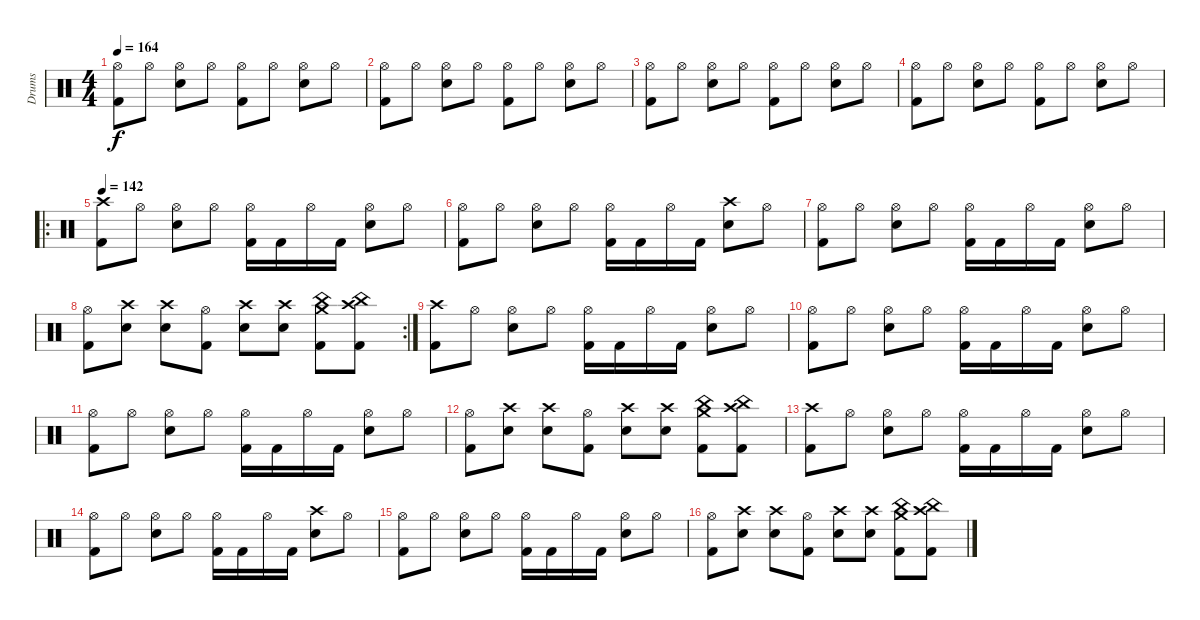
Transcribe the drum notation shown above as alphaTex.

\track ("Drums" "Drums") {instrument percussion}
\staff {score}
\articulation defaults
\ts (4 4)
\tempo 164
\clef neutral
\ks c
("Hi-Hat (open)" "Kick (hit) 2").8{dy f} "Hi-Hat (open)".8 ("Hi-Hat (open)" "Snare (hit) 2").8 "Hi-Hat (open)".8 ("Hi-Hat (open)" "Kick (hit) 2").8 "Hi-Hat (open)".8 ("Hi-Hat (open)" "Snare (hit) 2").8 "Hi-Hat (open)".8 |
("Hi-Hat (open)" "Kick (hit) 2").8 "Hi-Hat (open)".8 ("Hi-Hat (open)" "Snare (hit) 2").8 "Hi-Hat (open)".8 ("Hi-Hat (open)" "Kick (hit) 2").8 "Hi-Hat (open)".8 ("Hi-Hat (open)" "Snare (hit) 2").8 "Hi-Hat (open)".8 |
("Hi-Hat (open)" "Kick (hit) 2").8 "Hi-Hat (open)".8 ("Hi-Hat (open)" "Snare (hit) 2").8 "Hi-Hat (open)".8 ("Hi-Hat (open)" "Kick (hit) 2").8 "Hi-Hat (open)".8 ("Hi-Hat (open)" "Snare (hit) 2").8 "Hi-Hat (open)".8 |
("Hi-Hat (open)" "Kick (hit) 2").8 "Hi-Hat (open)".8 ("Hi-Hat (open)" "Snare (hit) 2").8 "Hi-Hat (open)".8 ("Hi-Hat (open)" "Kick (hit) 2").8 "Hi-Hat (open)".8 ("Hi-Hat (open)" "Snare (hit) 2").8 "Hi-Hat (open)".8 |
\ro
\tempo 142
("Crash high (hit)" "Kick (hit) 2").8 "Hi-Hat (open)".8 ("Hi-Hat (open)" "Snare (hit) 2").8 "Hi-Hat (open)".8 ("Hi-Hat (open)" "Kick (hit) 2").16 "Kick (hit) 2".16 "Hi-Hat (open)".16 "Kick (hit) 2".16 ("Hi-Hat (open)" "Snare (hit) 2").8 "Hi-Hat (open)".8 |
("Hi-Hat (open)" "Kick (hit) 2").8 "Hi-Hat (open)".8 ("Hi-Hat (open)" "Snare (hit) 2").8 "Hi-Hat (open)".8 ("Hi-Hat (open)" "Kick (hit) 2").16 "Kick (hit) 2".16 "Hi-Hat (open)".16 "Kick (hit) 2".16 ("Crash high (hit)" "Snare (hit) 2").8 "Hi-Hat (open)".8 |
("Hi-Hat (open)" "Kick (hit) 2").8 "Hi-Hat (open)".8 ("Hi-Hat (open)" "Snare (hit) 2").8 "Hi-Hat (open)".8 ("Hi-Hat (open)" "Kick (hit) 2").16 "Kick (hit) 2".16 "Hi-Hat (open)".16 "Kick (hit) 2".16 ("Hi-Hat (open)" "Snare (hit) 2").8 "Hi-Hat (open)".8 |
\rc 2
("Hi-Hat (open)" "Kick (hit) 2").8 ("Crash high (hit)" "Snare (hit) 2").8 ("Crash high (hit)" "Snare (hit) 2").8 ("Hi-Hat (open)" "Kick (hit) 2").8 ("Crash high (hit)" "Snare (hit) 2").8 ("Crash high (hit)" "Snare (hit) 2").8 ("China (hit)" "Crash medium (hit)" "Kick (hit) 2").8 ("China (hit)" "Crash high (hit)" "Kick (hit) 2").8 |
("Crash high (hit)" "Kick (hit) 2").8 "Hi-Hat (open)".8 ("Hi-Hat (open)" "Snare (hit) 2").8 "Hi-Hat (open)".8 ("Hi-Hat (open)" "Kick (hit) 2").16 "Kick (hit) 2".16 "Hi-Hat (open)".16 "Kick (hit) 2".16 ("Hi-Hat (open)" "Snare (hit) 2").8 "Hi-Hat (open)".8 |
("Hi-Hat (open)" "Kick (hit) 2").8 "Hi-Hat (open)".8 ("Hi-Hat (open)" "Snare (hit) 2").8 "Hi-Hat (open)".8 ("Hi-Hat (open)" "Kick (hit) 2").16 "Kick (hit) 2".16 "Hi-Hat (open)".16 "Kick (hit) 2".16 ("Hi-Hat (open)" "Snare (hit) 2").8 "Hi-Hat (open)".8 |
("Hi-Hat (open)" "Kick (hit) 2").8 "Hi-Hat (open)".8 ("Hi-Hat (open)" "Snare (hit) 2").8 "Hi-Hat (open)".8 ("Hi-Hat (open)" "Kick (hit) 2").16 "Kick (hit) 2".16 "Hi-Hat (open)".16 "Kick (hit) 2".16 ("Hi-Hat (open)" "Snare (hit) 2").8 "Hi-Hat (open)".8 |
("Hi-Hat (open)" "Kick (hit) 2").8 ("Crash high (hit)" "Snare (hit) 2").8 ("Crash high (hit)" "Snare (hit) 2").8 ("Hi-Hat (open)" "Kick (hit) 2").8 ("Crash high (hit)" "Snare (hit) 2").8 ("Crash high (hit)" "Snare (hit) 2").8 ("China (hit)" "Kick (hit) 2" "Crash medium (hit)").8 ("China (hit)" "Kick (hit) 2" "Crash high (hit)").8 |
("Crash high (hit)" "Kick (hit) 2").8 "Hi-Hat (open)".8 ("Hi-Hat (open)" "Snare (hit) 2").8 "Hi-Hat (open)".8 ("Hi-Hat (open)" "Kick (hit) 2").16 "Kick (hit) 2".16 "Hi-Hat (open)".16 "Kick (hit) 2".16 ("Hi-Hat (open)" "Snare (hit) 2").8 "Hi-Hat (open)".8 |
("Hi-Hat (open)" "Kick (hit) 2").8 "Hi-Hat (open)".8 ("Hi-Hat (open)" "Snare (hit) 2").8 "Hi-Hat (open)".8 ("Hi-Hat (open)" "Kick (hit) 2").16 "Kick (hit) 2".16 "Hi-Hat (open)".16 "Kick (hit) 2".16 ("Crash high (hit)" "Snare (hit) 2").8 "Hi-Hat (open)".8 |
("Hi-Hat (open)" "Kick (hit) 2").8 "Hi-Hat (open)".8 ("Hi-Hat (open)" "Snare (hit) 2").8 "Hi-Hat (open)".8 ("Hi-Hat (open)" "Kick (hit) 2").16 "Kick (hit) 2".16 "Hi-Hat (open)".16 "Kick (hit) 2".16 ("Hi-Hat (open)" "Snare (hit) 2").8 "Hi-Hat (open)".8 |
("Hi-Hat (open)" "Kick (hit) 2").8 ("Crash high (hit)" "Snare (hit) 2").8 ("Crash high (hit)" "Snare (hit) 2").8 ("Hi-Hat (open)" "Kick (hit) 2").8 ("Crash high (hit)" "Snare (hit) 2").8 ("Crash high (hit)" "Snare (hit) 2").8 ("China (hit)" "Crash medium (hit)" "Kick (hit) 2").8 ("China (hit)" "Crash high (hit)" "Kick (hit) 2").8
